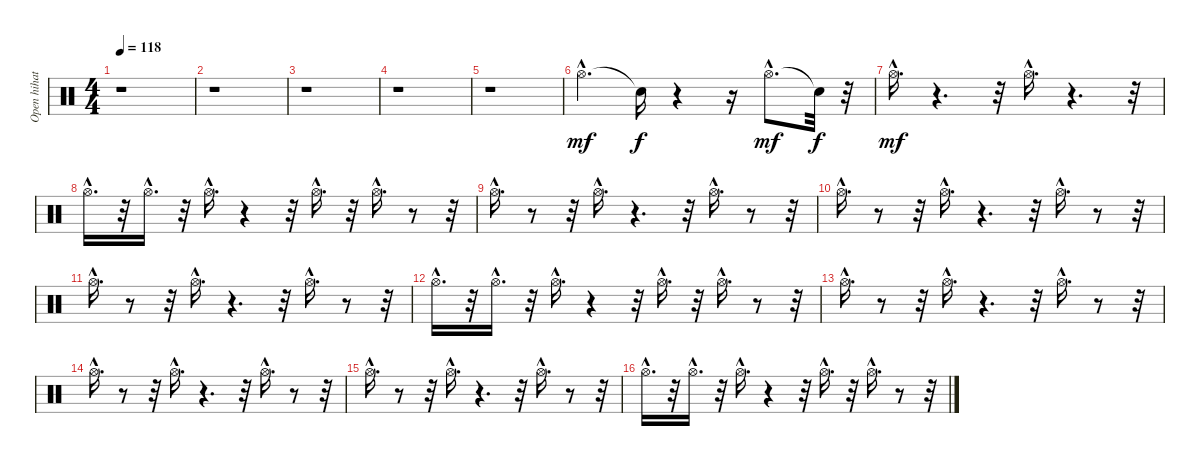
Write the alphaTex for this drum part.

\track ("Open hihat          " "Open hihat") {instrument percussion}
\staff {score}
\articulation defaults
\ts (4 4)
\tempo 118
\clef neutral
\ks c
r.1{dy f} |
r.1 |
r.1 |
r.1 |
r.1 |
"Hi-Hat (open)"{hac}.4{d dy mf} "Snare (hit)"{t}.16{dy f} r.4 r.16 "Hi-Hat (open)"{hac}.8{d dy mf} "Snare (hit)"{t}.32{dy f} r.32 |
"Hi-Hat (open)"{hac}.16{d dy mf} r.4{d} r.32 "Hi-Hat (open)"{hac}.16{d} r.4{d} r.32 |
"Hi-Hat (open)"{hac}.16{d} r.32 "Hi-Hat (open)"{hac}.16{d} r.32 "Hi-Hat (open)"{hac}.16{d} r.4 r.32 "Hi-Hat (open)"{hac}.16{d} r.32 "Hi-Hat (open)"{hac}.16{d} r.8 r.32 |
"Hi-Hat (open)"{hac}.16{d} r.8 r.32 "Hi-Hat (open)"{hac}.16{d} r.4{d} r.32 "Hi-Hat (open)"{hac}.16{d} r.8 r.32 |
"Hi-Hat (open)"{hac}.16{d} r.8 r.32 "Hi-Hat (open)"{hac}.16{d} r.4{d} r.32 "Hi-Hat (open)"{hac}.16{d} r.8 r.32 |
"Hi-Hat (open)"{hac}.16{d} r.8 r.32 "Hi-Hat (open)"{hac}.16{d} r.4{d} r.32 "Hi-Hat (open)"{hac}.16{d} r.8 r.32 |
"Hi-Hat (open)"{hac}.16{d} r.32 "Hi-Hat (open)"{hac}.16{d} r.32 "Hi-Hat (open)"{hac}.16{d} r.4 r.32 "Hi-Hat (open)"{hac}.16{d} r.32 "Hi-Hat (open)"{hac}.16{d} r.8 r.32 |
"Hi-Hat (open)"{hac}.16{d} r.8 r.32 "Hi-Hat (open)"{hac}.16{d} r.4{d} r.32 "Hi-Hat (open)"{hac}.16{d} r.8 r.32 |
"Hi-Hat (open)"{hac}.16{d} r.8 r.32 "Hi-Hat (open)"{hac}.16{d} r.4{d} r.32 "Hi-Hat (open)"{hac}.16{d} r.8 r.32 |
"Hi-Hat (open)"{hac}.16{d} r.8 r.32 "Hi-Hat (open)"{hac}.16{d} r.4{d} r.32 "Hi-Hat (open)"{hac}.16{d} r.8 r.32 |
"Hi-Hat (open)"{hac}.16{d} r.32 "Hi-Hat (open)"{hac}.16{d} r.32 "Hi-Hat (open)"{hac}.16{d} r.4 r.32 "Hi-Hat (open)"{hac}.16{d} r.32 "Hi-Hat (open)"{hac}.16{d} r.8 r.32
